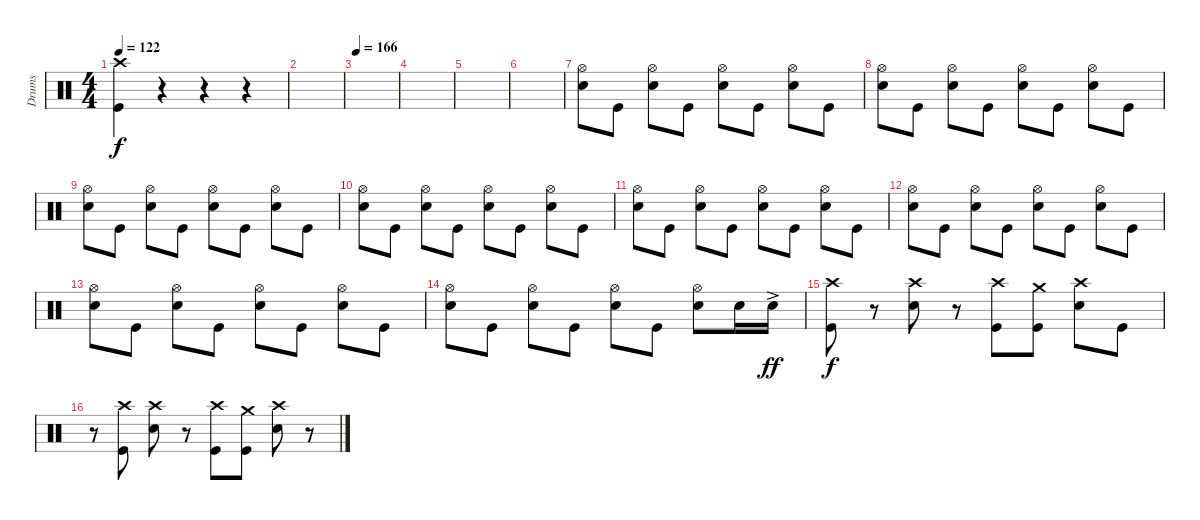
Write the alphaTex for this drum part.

\track ("Drums" "Drums") {instrument percussion}
\staff {score}
\articulation defaults
\ts (4 4)
\tempo 122
\clef neutral
\ks c
("Crash high (hit)" "Kick (hit)").4{dy f} r.4 r.4 r.4 |
|
\tempo 166
|
|
|
|
("Hi-Hat (open)" "Snare (hit) 2").8 "Kick (hit)".8 ("Hi-Hat (open)" "Snare (hit) 2").8 "Kick (hit)".8 ("Hi-Hat (open)" "Snare (hit) 2").8 "Kick (hit)".8 ("Hi-Hat (open)" "Snare (hit) 2").8 "Kick (hit)".8 |
("Hi-Hat (open)" "Snare (hit) 2").8 "Kick (hit)".8 ("Hi-Hat (open)" "Snare (hit) 2").8 "Kick (hit)".8 ("Hi-Hat (open)" "Snare (hit) 2").8 "Kick (hit)".8 ("Hi-Hat (open)" "Snare (hit) 2").8 "Kick (hit)".8 |
("Hi-Hat (open)" "Snare (hit) 2").8 "Kick (hit)".8 ("Hi-Hat (open)" "Snare (hit) 2").8 "Kick (hit)".8 ("Hi-Hat (open)" "Snare (hit) 2").8 "Kick (hit)".8 ("Hi-Hat (open)" "Snare (hit) 2").8 "Kick (hit)".8 |
("Hi-Hat (open)" "Snare (hit) 2").8 "Kick (hit)".8 ("Hi-Hat (open)" "Snare (hit) 2").8 "Kick (hit)".8 ("Hi-Hat (open)" "Snare (hit) 2").8 "Kick (hit)".8 ("Hi-Hat (open)" "Snare (hit) 2").8 "Kick (hit)".8 |
("Hi-Hat (open)" "Snare (hit) 2").8 "Kick (hit)".8 ("Hi-Hat (open)" "Snare (hit) 2").8 "Kick (hit)".8 ("Hi-Hat (open)" "Snare (hit) 2").8 "Kick (hit)".8 ("Hi-Hat (open)" "Snare (hit) 2").8 "Kick (hit)".8 |
("Hi-Hat (open)" "Snare (hit) 2").8 "Kick (hit)".8 ("Hi-Hat (open)" "Snare (hit) 2").8 "Kick (hit)".8 ("Hi-Hat (open)" "Snare (hit) 2").8 "Kick (hit)".8 ("Hi-Hat (open)" "Snare (hit) 2").8 "Kick (hit)".8 |
("Hi-Hat (open)" "Snare (hit) 2").8 "Kick (hit)".8 ("Hi-Hat (open)" "Snare (hit) 2").8 "Kick (hit)".8 ("Hi-Hat (open)" "Snare (hit) 2").8 "Kick (hit)".8 ("Hi-Hat (open)" "Snare (hit) 2").8 "Kick (hit)".8 |
("Hi-Hat (open)" "Snare (hit) 2").8 "Kick (hit)".8 ("Hi-Hat (open)" "Snare (hit) 2").8 "Kick (hit)".8 ("Hi-Hat (open)" "Snare (hit) 2").8 "Kick (hit)".8 ("Hi-Hat (open)" "Snare (hit) 2").8 "Snare (hit) 2".16 "Snare (hit) 2"{ac}.16{dy ff} |
("Crash high (hit)" "Kick (hit)").8{dy f} r.8 ("Crash high (hit)" "Snare (hit) 2").8 r.8 ("Crash high (hit)" "Kick (hit)").8 ("Crash medium (hit)" "Kick (hit)").8 ("Crash high (hit)" "Snare (hit) 2").8 "Kick (hit)".8 |
r.8 ("Crash high (hit)" "Kick (hit)").8 ("Crash high (hit)" "Snare (hit) 2").8 r.8 ("Crash high (hit)" "Kick (hit)").8 ("Crash medium (hit)" "Kick (hit)").8 ("Crash high (hit)" "Snare (hit) 2").8 r.8
